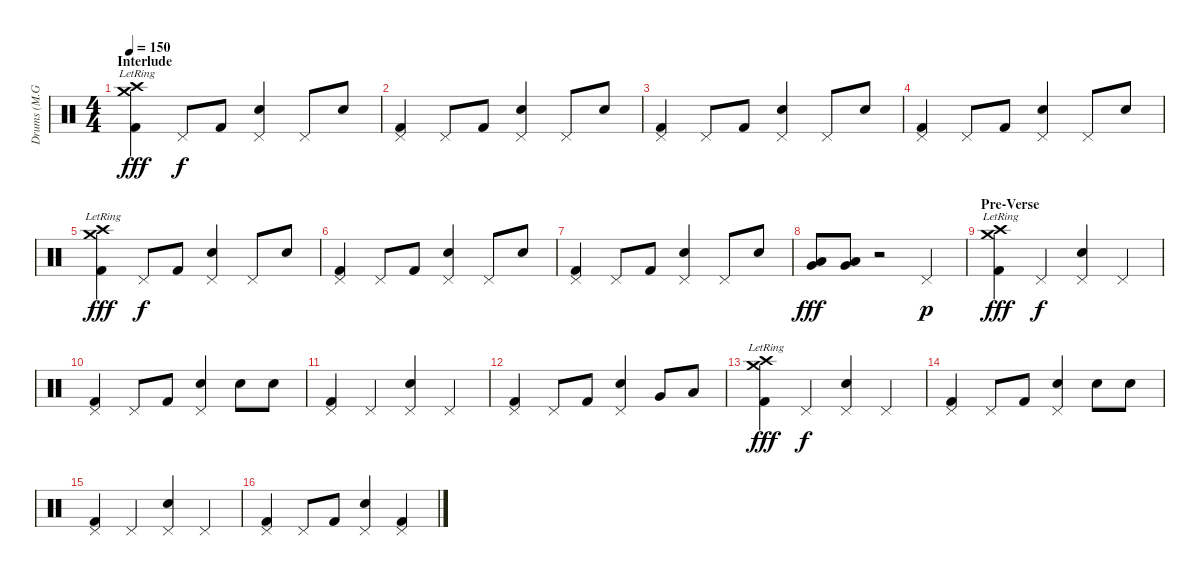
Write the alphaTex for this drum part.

\track ("Drums (M.Großkopf)" "Drums (M.G") {instrument percussion}
\staff {score}
\articulation defaults
\ts (4 4)
\section ("" "Interlude")
\tempo 150
\clef neutral
\ks c
("Crash high (hit)"{lr} "Crash medium (hit)"{lr} "Kick (hit) 2").4{dy fff} "Pedal Hi-Hat (hit)".8{dy f} "Kick (hit) 2".8 ("Pedal Hi-Hat (hit)" "Electric Snare (hit)").4 "Pedal Hi-Hat (hit)".8 "Electric Snare (hit)".8 |
("Pedal Hi-Hat (hit)" "Kick (hit) 2").4 "Pedal Hi-Hat (hit)".8 "Kick (hit) 2".8 ("Pedal Hi-Hat (hit)" "Electric Snare (hit)").4 "Pedal Hi-Hat (hit)".8 "Electric Snare (hit)".8 |
("Pedal Hi-Hat (hit)" "Kick (hit) 2").4 "Pedal Hi-Hat (hit)".8 "Kick (hit) 2".8 ("Pedal Hi-Hat (hit)" "Electric Snare (hit)").4 "Pedal Hi-Hat (hit)".8 "Electric Snare (hit)".8 |
("Pedal Hi-Hat (hit)" "Kick (hit) 2").4 "Pedal Hi-Hat (hit)".8 "Kick (hit) 2".8 ("Pedal Hi-Hat (hit)" "Electric Snare (hit)").4 "Pedal Hi-Hat (hit)".8 "Electric Snare (hit)".8 |
("Crash high (hit)"{lr} "Crash medium (hit)"{lr} "Kick (hit) 2").4{dy fff} "Pedal Hi-Hat (hit)".8{dy f} "Kick (hit) 2".8 ("Pedal Hi-Hat (hit)" "Electric Snare (hit)").4 "Pedal Hi-Hat (hit)".8 "Electric Snare (hit)".8 |
("Pedal Hi-Hat (hit)" "Kick (hit) 2").4 "Pedal Hi-Hat (hit)".8 "Kick (hit) 2".8 ("Pedal Hi-Hat (hit)" "Electric Snare (hit)").4 "Pedal Hi-Hat (hit)".8 "Electric Snare (hit)".8 |
("Pedal Hi-Hat (hit)" "Kick (hit) 2").4 "Pedal Hi-Hat (hit)".8 "Kick (hit) 2".8 ("Pedal Hi-Hat (hit)" "Electric Snare (hit)").4 "Pedal Hi-Hat (hit)".8 "Electric Snare (hit)".8 |
("Low Floor Tom (hit)" "Very Low Tom (hit)").8{dy fff} ("Low Floor Tom (hit)" "Very Low Tom (hit)").8 r.2 "Pedal Hi-Hat (hit)".4{dy p} |
\section ("" "Pre-Verse")
("Crash high (hit)"{lr} "Crash medium (hit)"{lr} "Kick (hit) 2").4{dy fff} "Pedal Hi-Hat (hit)".4{dy f} ("Pedal Hi-Hat (hit)" "Electric Snare (hit)").4 "Pedal Hi-Hat (hit)".4 |
("Pedal Hi-Hat (hit)" "Kick (hit) 2").4 "Pedal Hi-Hat (hit)".8 "Kick (hit) 2".8 ("Pedal Hi-Hat (hit)" "Electric Snare (hit)").4 "Electric Snare (hit)".8 "Electric Snare (hit)".8 |
("Pedal Hi-Hat (hit)" "Kick (hit) 2").4 "Pedal Hi-Hat (hit)".4 ("Pedal Hi-Hat (hit)" "Electric Snare (hit)").4 "Pedal Hi-Hat (hit)".4 |
("Pedal Hi-Hat (hit)" "Kick (hit) 2").4 "Pedal Hi-Hat (hit)".8 "Kick (hit) 2".8 ("Pedal Hi-Hat (hit)" "Electric Snare (hit)").4 "Very Low Tom (hit)".8 "Low Floor Tom (hit)".8 |
("Crash high (hit)"{lr} "Crash medium (hit)"{lr} "Kick (hit) 2").4{dy fff} "Pedal Hi-Hat (hit)".4{dy f} ("Pedal Hi-Hat (hit)" "Electric Snare (hit)").4 "Pedal Hi-Hat (hit)".4 |
("Pedal Hi-Hat (hit)" "Kick (hit) 2").4 "Pedal Hi-Hat (hit)".8 "Kick (hit) 2".8 ("Pedal Hi-Hat (hit)" "Electric Snare (hit)").4 "Electric Snare (hit)".8 "Electric Snare (hit)".8 |
("Pedal Hi-Hat (hit)" "Kick (hit) 2").4 "Pedal Hi-Hat (hit)".4 ("Pedal Hi-Hat (hit)" "Electric Snare (hit)").4 "Pedal Hi-Hat (hit)".4 |
("Pedal Hi-Hat (hit)" "Kick (hit) 2").4 "Pedal Hi-Hat (hit)".8 "Kick (hit) 2".8 ("Pedal Hi-Hat (hit)" "Electric Snare (hit)").4 ("Pedal Hi-Hat (hit)" "Kick (hit) 2").4
